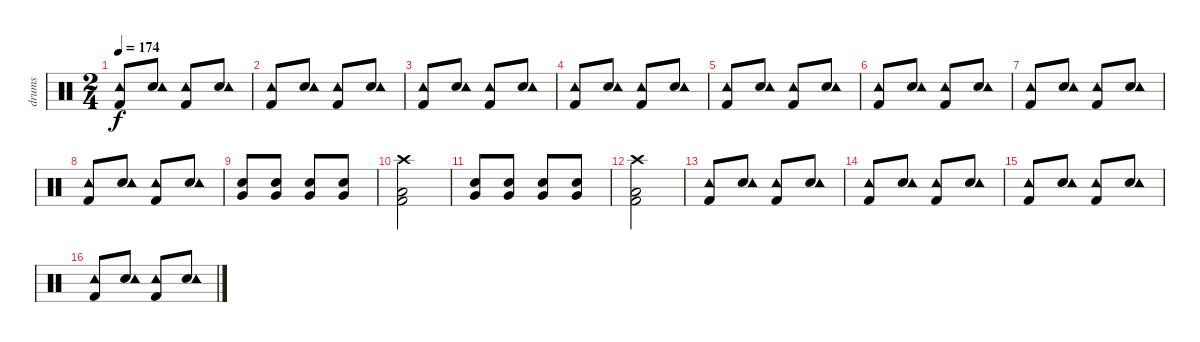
\track ("drums" "drums") {instrument percussion}
\staff {score}
\articulation defaults
\ts (2 4)
\tempo 174
\clef neutral
\ks c
("Tambourine (hit)" "Kick (hit) 2").8{dy f} ("Snare (hit) 2" "Tambourine (hit)").8 ("Kick (hit) 2" "Tambourine (hit)").8 ("Snare (hit) 2" "Tambourine (hit)").8 |
("Tambourine (hit)" "Kick (hit) 2").8 ("Snare (hit) 2" "Tambourine (hit)").8 ("Kick (hit) 2" "Tambourine (hit)").8 ("Snare (hit) 2" "Tambourine (hit)").8 |
("Tambourine (hit)" "Kick (hit) 2").8 ("Snare (hit) 2" "Tambourine (hit)").8 ("Kick (hit) 2" "Tambourine (hit)").8 ("Snare (hit) 2" "Tambourine (hit)").8 |
("Tambourine (hit)" "Kick (hit) 2").8 ("Snare (hit) 2" "Tambourine (hit)").8 ("Kick (hit) 2" "Tambourine (hit)").8 ("Snare (hit) 2" "Tambourine (hit)").8 |
("Tambourine (hit)" "Kick (hit) 2").8 ("Snare (hit) 2" "Tambourine (hit)").8 ("Kick (hit) 2" "Tambourine (hit)").8 ("Snare (hit) 2" "Tambourine (hit)").8 |
("Tambourine (hit)" "Kick (hit) 2").8 ("Snare (hit) 2" "Tambourine (hit)").8 ("Kick (hit) 2" "Tambourine (hit)").8 ("Snare (hit) 2" "Tambourine (hit)").8 |
("Tambourine (hit)" "Kick (hit) 2").8 ("Snare (hit) 2" "Tambourine (hit)").8 ("Kick (hit) 2" "Tambourine (hit)").8 ("Snare (hit) 2" "Tambourine (hit)").8 |
("Tambourine (hit)" "Kick (hit) 2").8 ("Snare (hit) 2" "Tambourine (hit)").8 ("Kick (hit) 2" "Tambourine (hit)").8 ("Snare (hit) 2" "Tambourine (hit)").8 |
("Snare (hit) 2" "Very Low Tom (hit)").8 ("Snare (hit) 2" "Very Low Tom (hit)").8 ("Snare (hit) 2" "Very Low Tom (hit)").8 ("Snare (hit) 2" "Very Low Tom (hit)").8 |
("Kick (hit) 2" "Low Floor Tom (hit)" "Crash high (hit)").2 |
("Very Low Tom (hit)" "Snare (hit) 2").8 ("Snare (hit) 2" "Very Low Tom (hit)").8 ("Snare (hit) 2" "Very Low Tom (hit)").8 ("Snare (hit) 2" "Very Low Tom (hit)").8 |
("Crash high (hit)" "Low Floor Tom (hit)" "Kick (hit) 2").2 |
("Tambourine (hit)" "Kick (hit) 2").8 ("Snare (hit) 2" "Tambourine (hit)").8 ("Kick (hit) 2" "Tambourine (hit)").8 ("Snare (hit) 2" "Tambourine (hit)").8 |
("Tambourine (hit)" "Kick (hit) 2").8 ("Snare (hit) 2" "Tambourine (hit)").8 ("Kick (hit) 2" "Tambourine (hit)").8 ("Snare (hit) 2" "Tambourine (hit)").8 |
("Tambourine (hit)" "Kick (hit) 2").8 ("Snare (hit) 2" "Tambourine (hit)").8 ("Kick (hit) 2" "Tambourine (hit)").8 ("Snare (hit) 2" "Tambourine (hit)").8 |
("Tambourine (hit)" "Kick (hit) 2").8 ("Snare (hit) 2" "Tambourine (hit)").8 ("Kick (hit) 2" "Tambourine (hit)").8 ("Snare (hit) 2" "Tambourine (hit)").8
